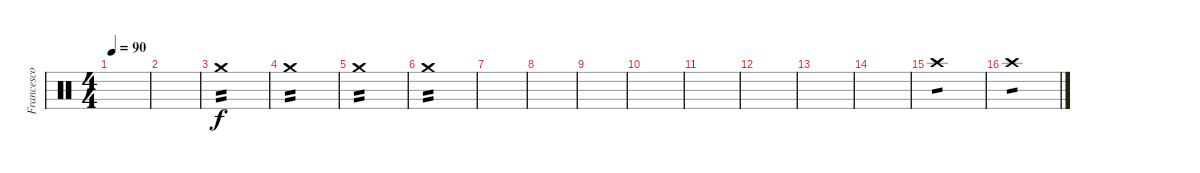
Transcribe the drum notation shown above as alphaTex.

\track ("Francesco -Franz- Valente" "Francesco ") {instrument percussion}
\staff {score}
\articulation defaults
\ts (4 4)
\tempo 90
\clef neutral
\ks c
|
|
"Crash medium (hit)".1{tp 2} |
"Crash medium (hit)".1{tp 2} |
"Crash medium (hit)".1{tp 2} |
"Crash medium (hit)".1{tp 2} |
|
|
|
|
|
|
|
|
"Crash high (hit)".1{tp 1} |
"Crash high (hit)".1{tp 1}
